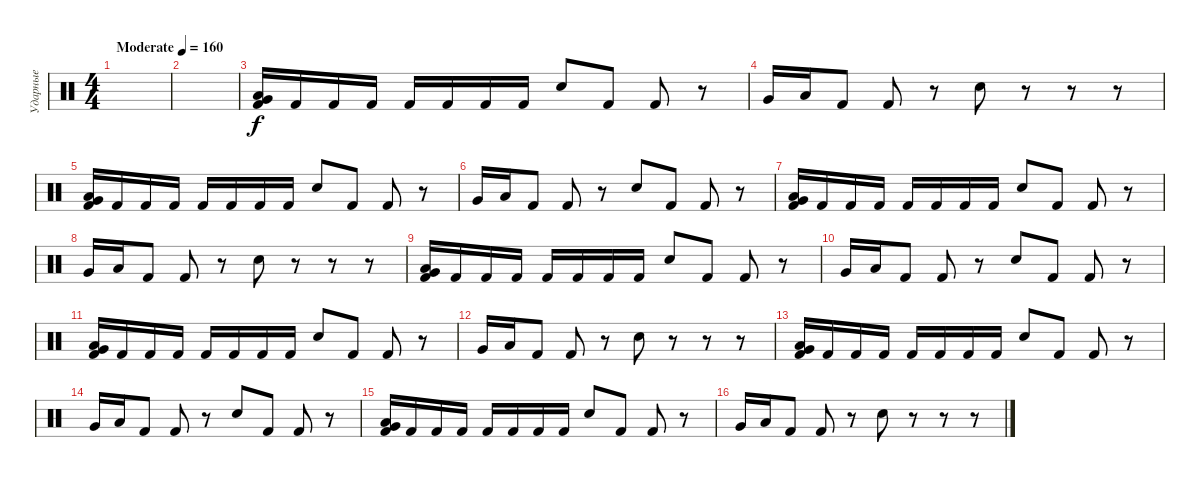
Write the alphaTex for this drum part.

\track ("Ударные" "Ударные") {instrument percussion}
\staff {score}
\articulation defaults
\ts (4 4)
\tempo (160 "Moderate")
\clef neutral
\ks c
|
|
("Very Low Tom (hit)" "Low Floor Tom (hit)" "Kick (hit) 2").16 "Kick (hit) 2".16 "Kick (hit) 2".16 "Kick (hit) 2".16 "Kick (hit) 2".16 "Kick (hit) 2".16 "Kick (hit) 2".16 "Kick (hit) 2".16 "Electric Snare (hit)".8 "Kick (hit) 2".8 "Kick (hit) 2".8 r.8 |
"Very Low Tom (hit)".16 "Low Floor Tom (hit)".16 "Kick (hit) 2".8 "Kick (hit) 2".8 r.8 "Electric Snare (hit)".8 r.8 r.8 r.8 |
("Very Low Tom (hit)" "Low Floor Tom (hit)" "Kick (hit) 2").16 "Kick (hit) 2".16 "Kick (hit) 2".16 "Kick (hit) 2".16 "Kick (hit) 2".16 "Kick (hit) 2".16 "Kick (hit) 2".16 "Kick (hit) 2".16 "Electric Snare (hit)".8 "Kick (hit) 2".8 "Kick (hit) 2".8 r.8 |
"Very Low Tom (hit)".16 "Low Floor Tom (hit)".16 "Kick (hit) 2".8 "Kick (hit) 2".8 r.8 "Electric Snare (hit)".8 "Kick (hit) 2".8 "Kick (hit) 2".8 r.8 |
("Very Low Tom (hit)" "Low Floor Tom (hit)" "Kick (hit) 2").16 "Kick (hit) 2".16 "Kick (hit) 2".16 "Kick (hit) 2".16 "Kick (hit) 2".16 "Kick (hit) 2".16 "Kick (hit) 2".16 "Kick (hit) 2".16 "Electric Snare (hit)".8 "Kick (hit) 2".8 "Kick (hit) 2".8 r.8 |
"Very Low Tom (hit)".16 "Low Floor Tom (hit)".16 "Kick (hit) 2".8 "Kick (hit) 2".8 r.8 "Electric Snare (hit)".8 r.8 r.8 r.8 |
("Very Low Tom (hit)" "Low Floor Tom (hit)" "Kick (hit) 2").16 "Kick (hit) 2".16 "Kick (hit) 2".16 "Kick (hit) 2".16 "Kick (hit) 2".16 "Kick (hit) 2".16 "Kick (hit) 2".16 "Kick (hit) 2".16 "Electric Snare (hit)".8 "Kick (hit) 2".8 "Kick (hit) 2".8 r.8 |
"Very Low Tom (hit)".16 "Low Floor Tom (hit)".16 "Kick (hit) 2".8 "Kick (hit) 2".8 r.8 "Electric Snare (hit)".8 "Kick (hit) 2".8 "Kick (hit) 2".8 r.8 |
("Very Low Tom (hit)" "Low Floor Tom (hit)" "Kick (hit) 2").16 "Kick (hit) 2".16 "Kick (hit) 2".16 "Kick (hit) 2".16 "Kick (hit) 2".16 "Kick (hit) 2".16 "Kick (hit) 2".16 "Kick (hit) 2".16 "Electric Snare (hit)".8 "Kick (hit) 2".8 "Kick (hit) 2".8 r.8 |
"Very Low Tom (hit)".16 "Low Floor Tom (hit)".16 "Kick (hit) 2".8 "Kick (hit) 2".8 r.8 "Electric Snare (hit)".8 r.8 r.8 r.8 |
("Very Low Tom (hit)" "Low Floor Tom (hit)" "Kick (hit) 2").16 "Kick (hit) 2".16 "Kick (hit) 2".16 "Kick (hit) 2".16 "Kick (hit) 2".16 "Kick (hit) 2".16 "Kick (hit) 2".16 "Kick (hit) 2".16 "Electric Snare (hit)".8 "Kick (hit) 2".8 "Kick (hit) 2".8 r.8 |
"Very Low Tom (hit)".16 "Low Floor Tom (hit)".16 "Kick (hit) 2".8 "Kick (hit) 2".8 r.8 "Electric Snare (hit)".8 "Kick (hit) 2".8 "Kick (hit) 2".8 r.8 |
("Very Low Tom (hit)" "Low Floor Tom (hit)" "Kick (hit) 2").16 "Kick (hit) 2".16 "Kick (hit) 2".16 "Kick (hit) 2".16 "Kick (hit) 2".16 "Kick (hit) 2".16 "Kick (hit) 2".16 "Kick (hit) 2".16 "Electric Snare (hit)".8 "Kick (hit) 2".8 "Kick (hit) 2".8 r.8 |
"Very Low Tom (hit)".16 "Low Floor Tom (hit)".16 "Kick (hit) 2".8 "Kick (hit) 2".8 r.8 "Electric Snare (hit)".8 r.8 r.8 r.8
